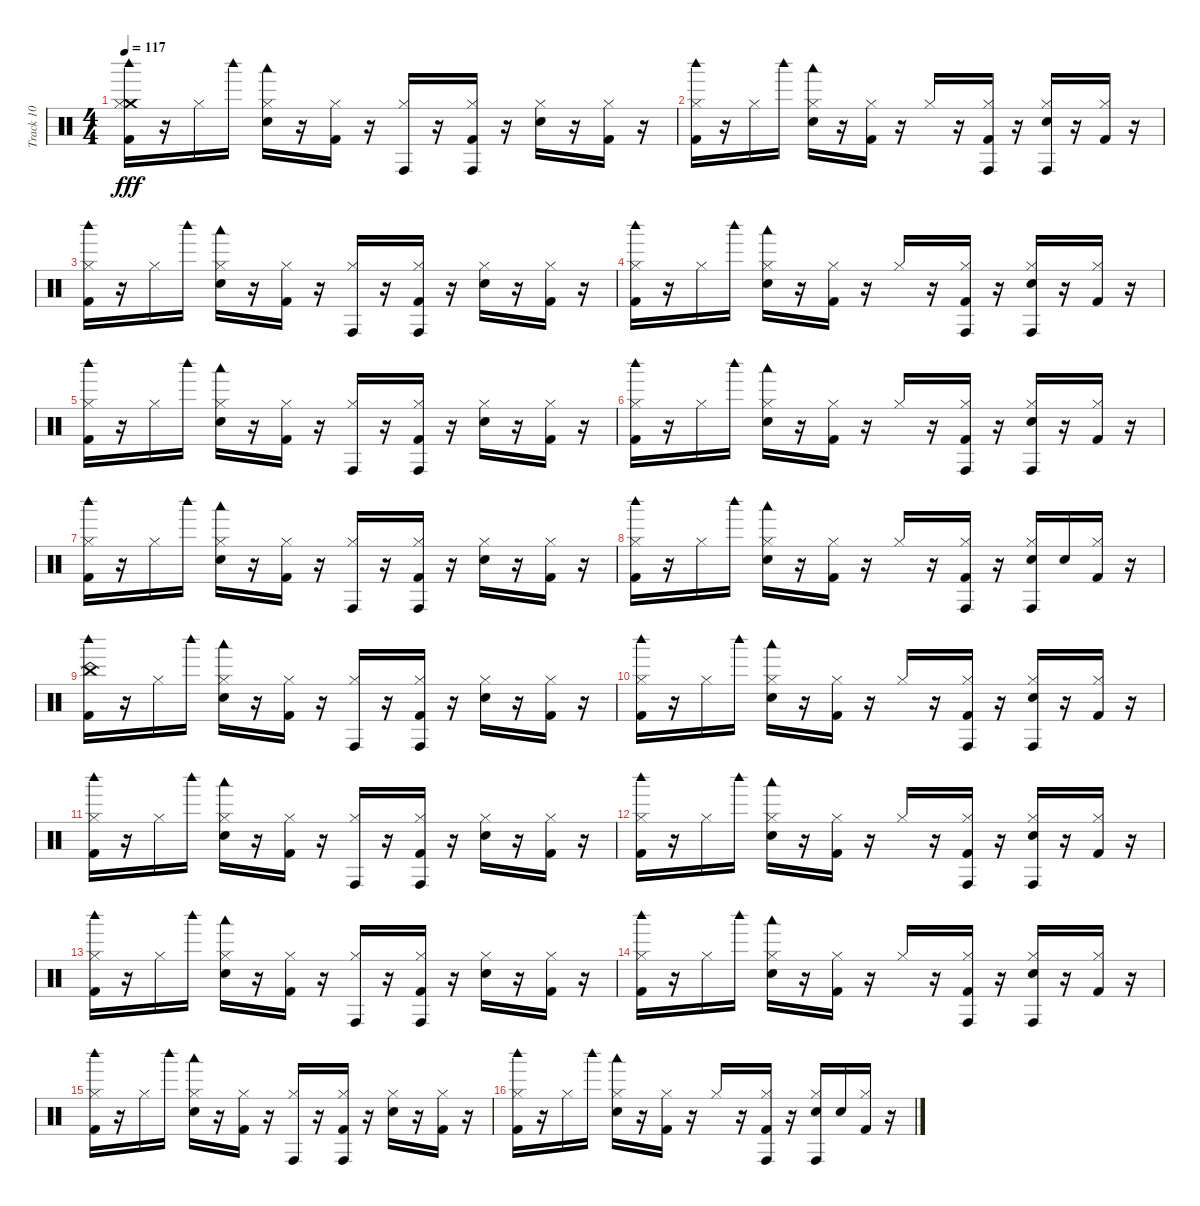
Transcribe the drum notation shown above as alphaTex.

\track ("Track 10" "Track 10") {instrument percussion}
\staff {score}
\articulation defaults
\ts (4 4)
\tempo 117
\clef neutral
\ks c
("Crash medium (hit)" "Hi-Hat (closed)" "Kick (hit) 2" "Woodblock high (hit)").16{dy fff} r.16 "Hi-Hat (closed)".16 "Woodblock high (hit)".16 ("Hi-Hat (closed)" "Snare (hit) 2" "Woodblock low (hit)").16 r.16 ("Hi-Hat (closed)" "Kick (hit) 2").16 r.16 ("Hi-Hat (closed)" "Conga high (hit)").16 r.16 ("Hi-Hat (closed)" "Kick (hit) 2" "Conga high (hit)").16 r.16 ("Hi-Hat (closed)" "Snare (hit) 2").16 r.16 ("Hi-Hat (closed)" "Kick (hit) 2").16 r.16 |
("Hi-Hat (closed)" "Kick (hit) 2" "Woodblock high (hit)").16 r.16 "Hi-Hat (closed)".16 "Woodblock high (hit)".16 ("Hi-Hat (closed)" "Snare (hit) 2" "Woodblock low (hit)").16 r.16 ("Hi-Hat (closed)" "Kick (hit) 2").16 r.16 "Hi-Hat (closed)".16 r.16 ("Hi-Hat (closed)" "Kick (hit) 2" "Conga high (hit)").16 r.16 ("Hi-Hat (closed)" "Snare (hit) 2" "Conga high (hit)").16 r.16 ("Hi-Hat (closed)" "Kick (hit) 2").16 r.16 |
("Kick (hit) 2" "Hi-Hat (closed)" "Woodblock high (hit)").16 r.16 "Hi-Hat (closed)".16 "Woodblock high (hit)".16 ("Snare (hit) 2" "Hi-Hat (closed)" "Woodblock low (hit)").16 r.16 ("Kick (hit) 2" "Hi-Hat (closed)").16 r.16 ("Hi-Hat (closed)" "Conga high (hit)").16 r.16 ("Kick (hit) 2" "Hi-Hat (closed)" "Conga high (hit)").16 r.16 ("Snare (hit) 2" "Hi-Hat (closed)").16 r.16 ("Kick (hit) 2" "Hi-Hat (closed)").16 r.16 |
("Kick (hit) 2" "Hi-Hat (closed)" "Woodblock high (hit)").16 r.16 "Hi-Hat (closed)".16 "Woodblock high (hit)".16 ("Snare (hit) 2" "Hi-Hat (closed)" "Woodblock low (hit)").16 r.16 ("Kick (hit) 2" "Hi-Hat (closed)").16 r.16 "Hi-Hat (closed)".16 r.16 ("Kick (hit) 2" "Hi-Hat (closed)" "Conga high (hit)").16 r.16 ("Snare (hit) 2" "Hi-Hat (closed)" "Conga high (hit)").16 r.16 ("Kick (hit) 2" "Hi-Hat (closed)").16 r.16 |
("Kick (hit) 2" "Hi-Hat (closed)" "Woodblock high (hit)").16 r.16 "Hi-Hat (closed)".16 "Woodblock high (hit)".16 ("Snare (hit) 2" "Hi-Hat (closed)" "Woodblock low (hit)").16 r.16 ("Kick (hit) 2" "Hi-Hat (closed)").16 r.16 ("Hi-Hat (closed)" "Conga high (hit)").16 r.16 ("Kick (hit) 2" "Hi-Hat (closed)" "Conga high (hit)").16 r.16 ("Snare (hit) 2" "Hi-Hat (closed)").16 r.16 ("Kick (hit) 2" "Hi-Hat (closed)").16 r.16 |
("Kick (hit) 2" "Hi-Hat (closed)" "Woodblock high (hit)").16 r.16 "Hi-Hat (closed)".16 "Woodblock high (hit)".16 ("Snare (hit) 2" "Hi-Hat (closed)" "Woodblock low (hit)").16 r.16 ("Kick (hit) 2" "Hi-Hat (closed)").16 r.16 "Hi-Hat (closed)".16 r.16 ("Kick (hit) 2" "Hi-Hat (closed)" "Conga high (hit)").16 r.16 ("Snare (hit) 2" "Hi-Hat (closed)" "Conga high (hit)").16 r.16 ("Kick (hit) 2" "Hi-Hat (closed)").16 r.16 |
("Hi-Hat (closed)" "Kick (hit) 2" "Woodblock high (hit)").16 r.16 "Hi-Hat (closed)".16 "Woodblock high (hit)".16 ("Hi-Hat (closed)" "Snare (hit) 2" "Woodblock low (hit)").16 r.16 ("Hi-Hat (closed)" "Kick (hit) 2").16 r.16 ("Hi-Hat (closed)" "Conga high (hit)").16 r.16 ("Hi-Hat (closed)" "Kick (hit) 2" "Conga high (hit)").16 r.16 ("Hi-Hat (closed)" "Snare (hit) 2").16 r.16 ("Hi-Hat (closed)" "Kick (hit) 2").16 r.16 |
("Hi-Hat (closed)" "Kick (hit) 2" "Woodblock high (hit)").16 r.16 "Hi-Hat (closed)".16 "Woodblock high (hit)".16 ("Hi-Hat (closed)" "Snare (hit) 2" "Woodblock low (hit)").16 r.16 ("Hi-Hat (closed)" "Kick (hit) 2").16 r.16 "Hi-Hat (closed)".16 r.16 ("Hi-Hat (closed)" "Kick (hit) 2" "Conga high (hit)").16 r.16 ("Hi-Hat (closed)" "Snare (hit) 2" "Conga high (hit)").16 "Snare (hit) 2".16 ("Hi-Hat (closed)" "Kick (hit) 2").16 r.16 |
("China (hit)" "Kick (hit) 2" "Woodblock high (hit)").16 r.16 "Hi-Hat (closed)".16 "Woodblock high (hit)".16 ("Hi-Hat (closed)" "Snare (hit) 2" "Woodblock low (hit)").16 r.16 ("Hi-Hat (closed)" "Kick (hit) 2").16 r.16 ("Hi-Hat (closed)" "Conga high (hit)").16 r.16 ("Hi-Hat (closed)" "Kick (hit) 2" "Conga high (hit)").16 r.16 ("Hi-Hat (closed)" "Snare (hit) 2").16 r.16 ("Hi-Hat (closed)" "Kick (hit) 2").16 r.16 |
("Hi-Hat (closed)" "Kick (hit) 2" "Woodblock high (hit)").16 r.16 "Hi-Hat (closed)".16 "Woodblock high (hit)".16 ("Hi-Hat (closed)" "Snare (hit) 2" "Woodblock low (hit)").16 r.16 ("Hi-Hat (closed)" "Kick (hit) 2").16 r.16 "Hi-Hat (closed)".16 r.16 ("Hi-Hat (closed)" "Kick (hit) 2" "Conga high (hit)").16 r.16 ("Hi-Hat (closed)" "Snare (hit) 2" "Conga high (hit)").16 r.16 ("Hi-Hat (closed)" "Kick (hit) 2").16 r.16 |
("Kick (hit) 2" "Hi-Hat (closed)" "Woodblock high (hit)").16 r.16 "Hi-Hat (closed)".16 "Woodblock high (hit)".16 ("Snare (hit) 2" "Hi-Hat (closed)" "Woodblock low (hit)").16 r.16 ("Kick (hit) 2" "Hi-Hat (closed)").16 r.16 ("Hi-Hat (closed)" "Conga high (hit)").16 r.16 ("Kick (hit) 2" "Hi-Hat (closed)" "Conga high (hit)").16 r.16 ("Snare (hit) 2" "Hi-Hat (closed)").16 r.16 ("Kick (hit) 2" "Hi-Hat (closed)").16 r.16 |
("Kick (hit) 2" "Hi-Hat (closed)" "Woodblock high (hit)").16 r.16 "Hi-Hat (closed)".16 "Woodblock high (hit)".16 ("Snare (hit) 2" "Hi-Hat (closed)" "Woodblock low (hit)").16 r.16 ("Kick (hit) 2" "Hi-Hat (closed)").16 r.16 "Hi-Hat (closed)".16 r.16 ("Kick (hit) 2" "Hi-Hat (closed)" "Conga high (hit)").16 r.16 ("Snare (hit) 2" "Hi-Hat (closed)" "Conga high (hit)").16 r.16 ("Kick (hit) 2" "Hi-Hat (closed)").16 r.16 |
("Hi-Hat (closed)" "Kick (hit) 2" "Woodblock high (hit)").16 r.16 "Hi-Hat (closed)".16 "Woodblock high (hit)".16 ("Hi-Hat (closed)" "Snare (hit) 2" "Woodblock low (hit)").16 r.16 ("Hi-Hat (closed)" "Kick (hit) 2").16 r.16 ("Hi-Hat (closed)" "Conga high (hit)").16 r.16 ("Hi-Hat (closed)" "Kick (hit) 2" "Conga high (hit)").16 r.16 ("Hi-Hat (closed)" "Snare (hit) 2").16 r.16 ("Hi-Hat (closed)" "Kick (hit) 2").16 r.16 |
("Hi-Hat (closed)" "Kick (hit) 2" "Woodblock high (hit)").16 r.16 "Hi-Hat (closed)".16 "Woodblock high (hit)".16 ("Hi-Hat (closed)" "Snare (hit) 2" "Woodblock low (hit)").16 r.16 ("Hi-Hat (closed)" "Kick (hit) 2").16 r.16 "Hi-Hat (closed)".16 r.16 ("Hi-Hat (closed)" "Kick (hit) 2" "Conga high (hit)").16 r.16 ("Hi-Hat (closed)" "Snare (hit) 2" "Conga high (hit)").16 r.16 ("Hi-Hat (closed)" "Kick (hit) 2").16 r.16 |
("Hi-Hat (closed)" "Kick (hit) 2" "Woodblock high (hit)").16 r.16 "Hi-Hat (closed)".16 "Woodblock high (hit)".16 ("Hi-Hat (closed)" "Snare (hit) 2" "Woodblock low (hit)").16 r.16 ("Hi-Hat (closed)" "Kick (hit) 2").16 r.16 ("Hi-Hat (closed)" "Conga high (hit)").16 r.16 ("Hi-Hat (closed)" "Kick (hit) 2" "Conga high (hit)").16 r.16 ("Hi-Hat (closed)" "Snare (hit) 2").16 r.16 ("Hi-Hat (closed)" "Kick (hit) 2").16 r.16 |
("Hi-Hat (closed)" "Kick (hit) 2" "Woodblock high (hit)").16 r.16 "Hi-Hat (closed)".16 "Woodblock high (hit)".16 ("Hi-Hat (closed)" "Snare (hit) 2" "Woodblock low (hit)").16 r.16 ("Hi-Hat (closed)" "Kick (hit) 2").16 r.16 "Hi-Hat (closed)".16 r.16 ("Hi-Hat (closed)" "Kick (hit) 2" "Conga high (hit)").16 r.16 ("Hi-Hat (closed)" "Snare (hit) 2" "Conga high (hit)").16 "Snare (hit) 2".16 ("Hi-Hat (closed)" "Kick (hit) 2").16 r.16
